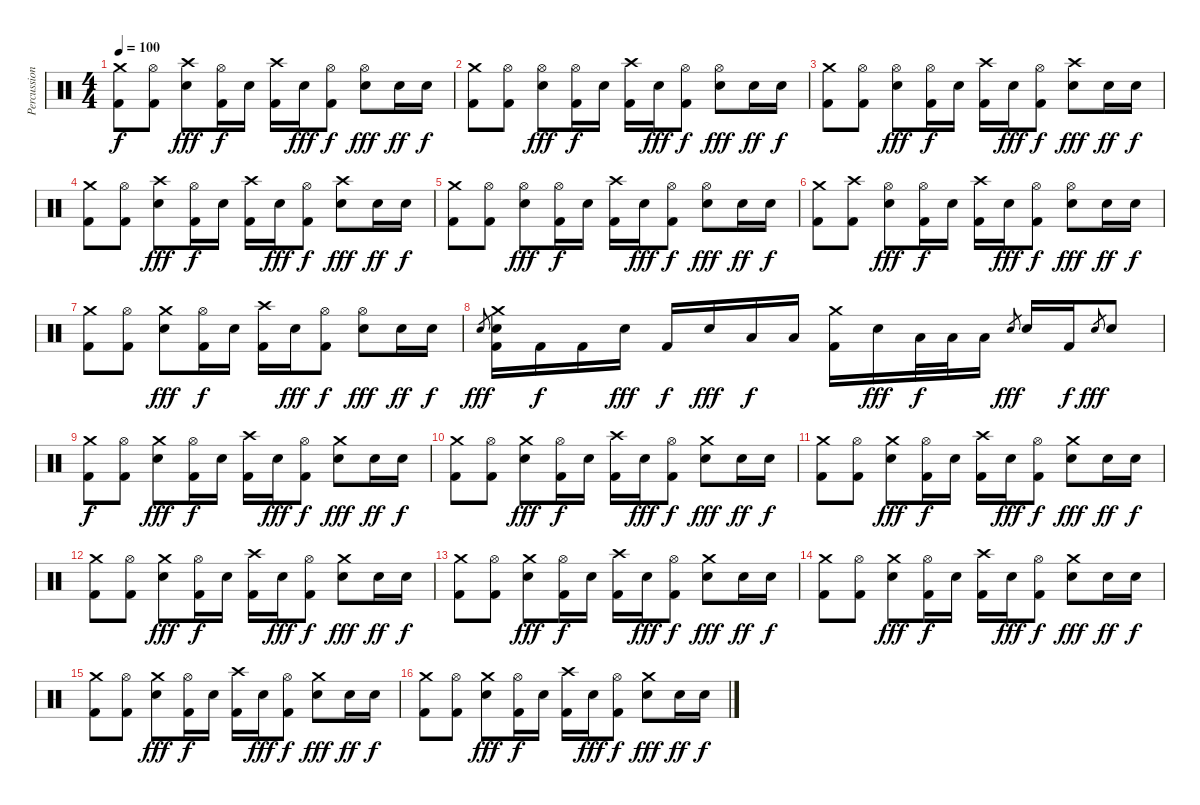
\track ("Percussion" "Percussion") {instrument percussion}
\staff {score}
\articulation defaults
\ts (4 4)
\tempo 100
\clef neutral
\ks c
("Crash medium (hit)" "Kick (hit) 2").8{dy f} ("Hi-Hat (open)" "Kick (hit) 2").8 ("Crash high (hit)" "Electric Snare (hit)").8{dy fff} ("Hi-Hat (open)" "Kick (hit) 2").16{dy f} "Electric Snare (hit)".16 ("Crash high (hit)" "Kick (hit) 2").16 "Electric Snare (hit)".16{dy fff} ("Hi-Hat (open)" "Kick (hit) 2").8{dy f} ("Hi-Hat (open)" "Electric Snare (hit)").8{dy fff} "Electric Snare (hit)".16{dy ff} "Electric Snare (hit)".16{dy f} |
("Crash medium (hit)" "Kick (hit) 2").8 ("Hi-Hat (open)" "Kick (hit) 2").8 ("Hi-Hat (open)" "Electric Snare (hit)").8{dy fff} ("Hi-Hat (open)" "Kick (hit) 2").16{dy f} "Electric Snare (hit)".16 ("Crash high (hit)" "Kick (hit) 2").16 "Electric Snare (hit)".16{dy fff} ("Hi-Hat (open)" "Kick (hit) 2").8{dy f} ("Hi-Hat (open)" "Electric Snare (hit)").8{dy fff} "Electric Snare (hit)".16{dy ff} "Electric Snare (hit)".16{dy f} |
("Crash medium (hit)" "Kick (hit) 2").8 ("Hi-Hat (open)" "Kick (hit) 2").8 ("Hi-Hat (open)" "Electric Snare (hit)").8{dy fff} ("Hi-Hat (open)" "Kick (hit) 2").16{dy f} "Electric Snare (hit)".16 ("Crash high (hit)" "Kick (hit) 2").16 "Electric Snare (hit)".16{dy fff} ("Hi-Hat (open)" "Kick (hit) 2").8{dy f} ("Crash high (hit)" "Electric Snare (hit)").8{dy fff} "Electric Snare (hit)".16{dy ff} "Electric Snare (hit)".16{dy f} |
("Crash medium (hit)" "Kick (hit) 2").8 ("Hi-Hat (open)" "Kick (hit) 2").8 ("Crash high (hit)" "Electric Snare (hit)").8{dy fff} ("Hi-Hat (open)" "Kick (hit) 2").16{dy f} "Electric Snare (hit)".16 ("Crash high (hit)" "Kick (hit) 2").16 "Electric Snare (hit)".16{dy fff} ("Hi-Hat (open)" "Kick (hit) 2").8{dy f} ("Crash high (hit)" "Electric Snare (hit)").8{dy fff} "Electric Snare (hit)".16{dy ff} "Electric Snare (hit)".16{dy f} |
("Crash medium (hit)" "Kick (hit) 2").8 ("Hi-Hat (open)" "Kick (hit) 2").8 ("Hi-Hat (open)" "Electric Snare (hit)").8{dy fff} ("Hi-Hat (open)" "Kick (hit) 2").16{dy f} "Electric Snare (hit)".16 ("Crash high (hit)" "Kick (hit) 2").16 "Electric Snare (hit)".16{dy fff} ("Hi-Hat (open)" "Kick (hit) 2").8{dy f} ("Hi-Hat (open)" "Electric Snare (hit)").8{dy fff} "Electric Snare (hit)".16{dy ff} "Electric Snare (hit)".16{dy f} |
("Crash medium (hit)" "Kick (hit) 2").8 ("Crash high (hit)" "Kick (hit) 2").8 ("Hi-Hat (open)" "Electric Snare (hit)").8{dy fff} ("Hi-Hat (open)" "Kick (hit) 2").16{dy f} "Electric Snare (hit)".16 ("Crash high (hit)" "Kick (hit) 2").16 "Electric Snare (hit)".16{dy fff} ("Hi-Hat (open)" "Kick (hit) 2").8{dy f} ("Hi-Hat (open)" "Electric Snare (hit)").8{dy fff} "Electric Snare (hit)".16{dy ff} "Electric Snare (hit)".16{dy f} |
("Crash medium (hit)" "Kick (hit) 2").8 ("Hi-Hat (open)" "Kick (hit) 2").8 ("Crash medium (hit)" "Electric Snare (hit)").8{dy fff} ("Hi-Hat (open)" "Kick (hit) 2").16{dy f} "Electric Snare (hit)".16 ("Crash high (hit)" "Kick (hit) 2").16 "Electric Snare (hit)".16{dy fff} ("Hi-Hat (open)" "Kick (hit) 2").8{dy f} ("Hi-Hat (open)" "Electric Snare (hit)").8{dy fff} "Electric Snare (hit)".16{dy ff} "Electric Snare (hit)".16{dy f} |
"Electric Snare (hit)".8{gr dy fff} ("Crash medium (hit)" "Electric Snare (hit)" "Kick (hit) 2").16 "Kick (hit) 2".16{dy f} "Kick (hit) 2".16 "Electric Snare (hit)".16{dy fff} "Kick (hit) 2".16{dy f} "Electric Snare (hit)".16{dy fff} "Low Floor Tom (hit)".16{dy f} "Low Floor Tom (hit)".16 ("Crash medium (hit)" "Kick (hit) 2").16 "Electric Snare (hit)".16{dy fff} "Low Floor Tom (hit)".32{dy f} "Low Floor Tom (hit)".32 "Low Floor Tom (hit)".16 "Electric Snare (hit)".8{gr dy fff} "Electric Snare (hit)".16 "Kick (hit) 2".16{dy f} "Electric Snare (hit)".8{gr dy fff} "Electric Snare (hit)".8 |
("Crash medium (hit)" "Kick (hit) 2").8{dy f} ("Hi-Hat (open)" "Kick (hit) 2").8 ("Crash medium (hit)" "Electric Snare (hit)").8{dy fff} ("Hi-Hat (open)" "Kick (hit) 2").16{dy f} "Electric Snare (hit)".16 ("Crash high (hit)" "Kick (hit) 2").16 "Electric Snare (hit)".16{dy fff} ("Hi-Hat (open)" "Kick (hit) 2").8{dy f} ("Crash medium (hit)" "Electric Snare (hit)").8{dy fff} "Electric Snare (hit)".16{dy ff} "Electric Snare (hit)".16{dy f} |
("Crash medium (hit)" "Kick (hit) 2").8 ("Hi-Hat (open)" "Kick (hit) 2").8 ("Crash medium (hit)" "Electric Snare (hit)").8{dy fff} ("Hi-Hat (open)" "Kick (hit) 2").16{dy f} "Electric Snare (hit)".16 ("Crash high (hit)" "Kick (hit) 2").16 "Electric Snare (hit)".16{dy fff} ("Hi-Hat (open)" "Kick (hit) 2").8{dy f} ("Crash medium (hit)" "Electric Snare (hit)").8{dy fff} "Electric Snare (hit)".16{dy ff} "Electric Snare (hit)".16{dy f} |
("Crash medium (hit)" "Kick (hit) 2").8 ("Hi-Hat (open)" "Kick (hit) 2").8 ("Crash medium (hit)" "Electric Snare (hit)").8{dy fff} ("Hi-Hat (open)" "Kick (hit) 2").16{dy f} "Electric Snare (hit)".16 ("Crash high (hit)" "Kick (hit) 2").16 "Electric Snare (hit)".16{dy fff} ("Hi-Hat (open)" "Kick (hit) 2").8{dy f} ("Crash medium (hit)" "Electric Snare (hit)").8{dy fff} "Electric Snare (hit)".16{dy ff} "Electric Snare (hit)".16{dy f} |
("Crash medium (hit)" "Kick (hit) 2").8 ("Hi-Hat (open)" "Kick (hit) 2").8 ("Crash medium (hit)" "Electric Snare (hit)").8{dy fff} ("Hi-Hat (open)" "Kick (hit) 2").16{dy f} "Electric Snare (hit)".16 ("Crash high (hit)" "Kick (hit) 2").16 "Electric Snare (hit)".16{dy fff} ("Hi-Hat (open)" "Kick (hit) 2").8{dy f} ("Crash medium (hit)" "Electric Snare (hit)").8{dy fff} "Electric Snare (hit)".16{dy ff} "Electric Snare (hit)".16{dy f} |
("Crash medium (hit)" "Kick (hit) 2").8 ("Hi-Hat (open)" "Kick (hit) 2").8 ("Crash medium (hit)" "Electric Snare (hit)").8{dy fff} ("Hi-Hat (open)" "Kick (hit) 2").16{dy f} "Electric Snare (hit)".16 ("Crash high (hit)" "Kick (hit) 2").16 "Electric Snare (hit)".16{dy fff} ("Hi-Hat (open)" "Kick (hit) 2").8{dy f} ("Crash medium (hit)" "Electric Snare (hit)").8{dy fff} "Electric Snare (hit)".16{dy ff} "Electric Snare (hit)".16{dy f} |
("Crash medium (hit)" "Kick (hit) 2").8 ("Hi-Hat (open)" "Kick (hit) 2").8 ("Crash medium (hit)" "Electric Snare (hit)").8{dy fff} ("Hi-Hat (open)" "Kick (hit) 2").16{dy f} "Electric Snare (hit)".16 ("Crash high (hit)" "Kick (hit) 2").16 "Electric Snare (hit)".16{dy fff} ("Hi-Hat (open)" "Kick (hit) 2").8{dy f} ("Crash medium (hit)" "Electric Snare (hit)").8{dy fff} "Electric Snare (hit)".16{dy ff} "Electric Snare (hit)".16{dy f} |
("Crash medium (hit)" "Kick (hit) 2").8 ("Hi-Hat (open)" "Kick (hit) 2").8 ("Crash medium (hit)" "Electric Snare (hit)").8{dy fff} ("Hi-Hat (open)" "Kick (hit) 2").16{dy f} "Electric Snare (hit)".16 ("Crash high (hit)" "Kick (hit) 2").16 "Electric Snare (hit)".16{dy fff} ("Hi-Hat (open)" "Kick (hit) 2").8{dy f} ("Crash medium (hit)" "Electric Snare (hit)").8{dy fff} "Electric Snare (hit)".16{dy ff} "Electric Snare (hit)".16{dy f} |
("Crash medium (hit)" "Kick (hit) 2").8 ("Hi-Hat (open)" "Kick (hit) 2").8 ("Crash medium (hit)" "Electric Snare (hit)").8{dy fff} ("Hi-Hat (open)" "Kick (hit) 2").16{dy f} "Electric Snare (hit)".16 ("Crash high (hit)" "Kick (hit) 2").16 "Electric Snare (hit)".16{dy fff} ("Hi-Hat (open)" "Kick (hit) 2").8{dy f} ("Crash medium (hit)" "Electric Snare (hit)").8{dy fff} "Electric Snare (hit)".16{dy ff} "Electric Snare (hit)".16{dy f}
